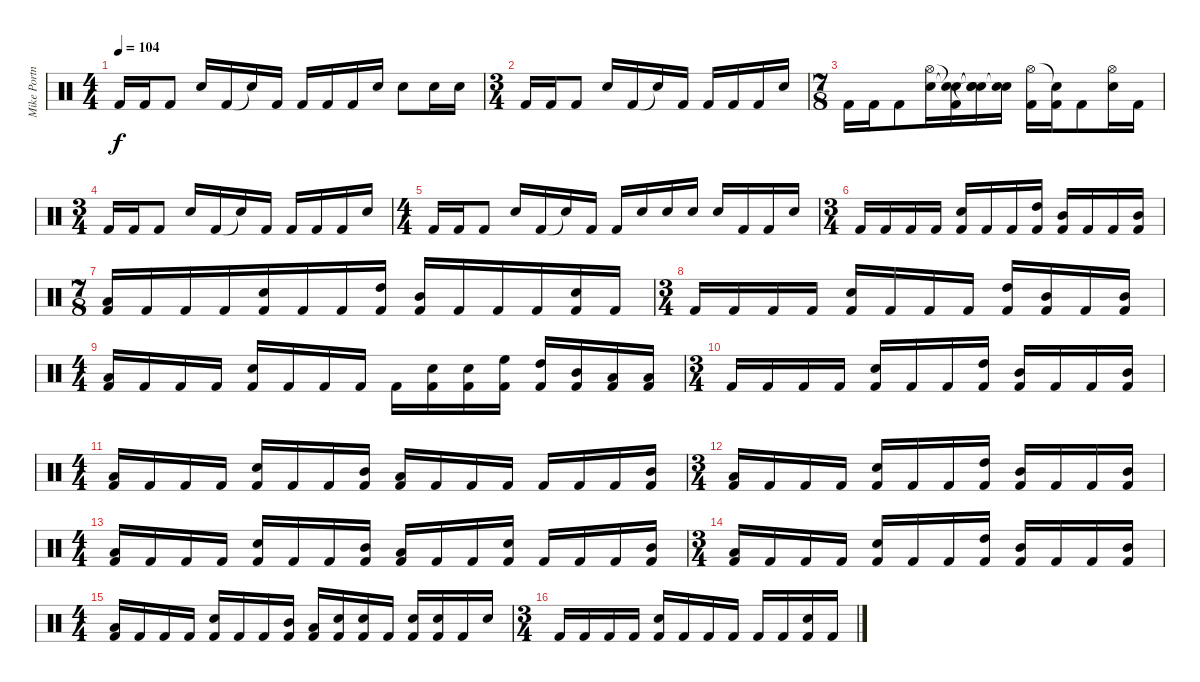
\track ("Mike Portnoy" "Mike Portn") {instrument percussion}
\staff {score}
\articulation defaults
\ts (4 4)
\tempo 104
\clef neutral
\ks c "Kick (hit) 2".16{dy f} "Kick (hit) 2".16 "Kick (hit) 2".8 "Snare (hit) 2".16 "Kick (hit) 2".16 "Snare (hit)"{t}.16 "Kick (hit) 2".16 "Kick (hit) 2".16 "Kick (hit) 2".16 "Kick (hit) 2".16 "Snare (hit) 2".16 "Snare (hit) 2".8 "Snare (hit) 2".16 "Snare (hit) 2".16
|
\ts (3 4)
"Kick (hit) 2".16 "Kick (hit) 2".16 "Kick (hit) 2".8 "Snare (hit) 2".16 "Kick (hit) 2".16 "Snare (hit)"{t}.16 "Kick (hit) 2".16 "Kick (hit) 2".16 "Kick (hit) 2".16 "Kick (hit) 2".16 "Snare (hit) 2".16 |
\ts (7 8)
"Kick (hit) 2".16 "Kick (hit) 2".16 "Kick (hit) 2".8 ("Hi-Hat (open)" "Snare (hit) 2").16 ("Snare (hit)"{t} "Snare (hit)"{t} "Kick (hit) 2").16 ("Snare (hit)"{t} "Snare (hit)"{t} "Snare (hit)"{t}).16 ("Snare (hit)"{t} "Snare (hit) 2").16 ("Hi-Hat (open)" "Kick (hit) 2").16 ("Snare (hit)"{t} "Kick (hit) 2").16 "Kick (hit) 2".8 ("Hi-Hat (open)" "Snare (hit) 2").16 "Kick (hit) 2".16 |
\ts (3 4)
"Kick (hit) 2".16 "Kick (hit) 2".16 "Kick (hit) 2".8 "Snare (hit) 2".16 "Kick (hit) 2".16 "Snare (hit)"{t}.16 "Kick (hit) 2".16 "Kick (hit) 2".16 "Kick (hit) 2".16 "Kick (hit) 2".16 "Snare (hit) 2".16 |
\ts (4 4)
"Kick (hit) 2".16 "Kick (hit) 2".16 "Kick (hit) 2".8 "Snare (hit) 2".16 "Kick (hit) 2".16 "Snare (hit)"{t}.16 "Kick (hit) 2".16 "Kick (hit) 2".16 "Snare (hit) 2".16 "Snare (hit) 2".16 "Snare (hit) 2".16 "Snare (hit) 2".16 "Kick (hit) 2".16 "Kick (hit) 2".16 "Snare (hit) 2".16 |
\ts (3 4)
"Kick (hit) 2".16 "Kick (hit) 2".16 "Kick (hit) 2".16 "Kick (hit) 2".16 ("Snare (hit) 2" "Kick (hit) 2").16 "Kick (hit) 2".16 "Kick (hit) 2".16 ("High Tom (hit)" "Kick (hit) 2").16 ("Mid Tom (hit)" "Kick (hit) 2").16 "Kick (hit) 2".16 "Kick (hit) 2".16 ("Mid Tom (hit)" "Kick (hit) 2").16 |
\ts (7 8)
("Low Tom (hit)" "Kick (hit) 2").16 "Kick (hit) 2".16 "Kick (hit) 2".16 "Kick (hit) 2".16 ("Snare (hit) 2" "Kick (hit) 2").16 "Kick (hit) 2".16 "Kick (hit) 2".16 ("High Tom (hit)" "Kick (hit) 2").16 ("Mid Tom (hit)" "Kick (hit) 2").16 "Kick (hit) 2".16 "Kick (hit) 2".16 "Kick (hit) 2".16 ("Snare (hit) 2" "Kick (hit) 2").16 "Kick (hit) 2".16 |
\ts (3 4)
"Kick (hit) 2".16 "Kick (hit) 2".16 "Kick (hit) 2".16 "Kick (hit) 2".16 ("Snare (hit) 2" "Kick (hit) 2").16 "Kick (hit) 2".16 "Kick (hit) 2".16 "Kick (hit) 2".16 ("High Tom (hit)" "Kick (hit) 2").16 ("Mid Tom (hit)" "Kick (hit) 2").16 "Kick (hit) 2".16 ("Mid Tom (hit)" "Kick (hit) 2").16 |
\ts (4 4)
("Low Tom (hit)" "Kick (hit) 2").16 "Kick (hit) 2".16 "Kick (hit) 2".16 "Kick (hit) 2".16 ("Snare (hit) 2" "Kick (hit) 2").16 "Kick (hit) 2".16 "Kick (hit) 2".16 "Kick (hit) 2".16 "Kick (hit) 2".16 ("Snare (hit) 2" "Kick (hit) 2").16 ("Snare (hit) 2" "Kick (hit) 2").16 ("High Floor Tom (hit)" "Kick (hit) 2").16 ("High Tom (hit)" "Kick (hit) 2").16 ("Mid Tom (hit)" "Kick (hit) 2").16 ("Low Tom (hit)" "Kick (hit) 2").16 ("Low Tom (hit)" "Kick (hit) 2").16 |
\ts (3 4)
"Kick (hit) 2".16 "Kick (hit) 2".16 "Kick (hit) 2".16 "Kick (hit) 2".16 ("Snare (hit) 2" "Kick (hit) 2").16 "Kick (hit) 2".16 "Kick (hit) 2".16 ("High Tom (hit)" "Kick (hit) 2").16 ("Mid Tom (hit)" "Kick (hit) 2").16 "Kick (hit) 2".16 "Kick (hit) 2".16 ("Mid Tom (hit)" "Kick (hit) 2").16 |
\ts (4 4)
("Low Tom (hit)" "Kick (hit) 2").16 "Kick (hit) 2".16 "Kick (hit) 2".16 "Kick (hit) 2".16 ("Snare (hit) 2" "Kick (hit) 2").16 "Kick (hit) 2".16 "Kick (hit) 2".16 ("Mid Tom (hit)" "Kick (hit) 2").16 ("Low Tom (hit)" "Kick (hit) 2").16 "Kick (hit) 2".16 "Kick (hit) 2".16 "Kick (hit) 2".16 "Kick (hit) 2".16 "Kick (hit) 2".16 "Kick (hit) 2".16 ("Mid Tom (hit)" "Kick (hit) 2").16 |
\ts (3 4)
("Low Tom (hit)" "Kick (hit) 2").16 "Kick (hit) 2".16 "Kick (hit) 2".16 "Kick (hit) 2".16 ("Snare (hit) 2" "Kick (hit) 2").16 "Kick (hit) 2".16 "Kick (hit) 2".16 ("High Tom (hit)" "Kick (hit) 2").16 ("Mid Tom (hit)" "Kick (hit) 2").16 "Kick (hit) 2".16 "Kick (hit) 2".16 ("Mid Tom (hit)" "Kick (hit) 2").16 |
\ts (4 4)
("Low Tom (hit)" "Kick (hit) 2").16 "Kick (hit) 2".16 "Kick (hit) 2".16 "Kick (hit) 2".16 ("Snare (hit) 2" "Kick (hit) 2").16 "Kick (hit) 2".16 "Kick (hit) 2".16 ("Mid Tom (hit)" "Kick (hit) 2").16 ("Low Tom (hit)" "Kick (hit) 2").16 "Kick (hit) 2".16 "Kick (hit) 2".16 ("Snare (hit) 2" "Kick (hit) 2").16 "Kick (hit) 2".16 "Kick (hit) 2".16 "Kick (hit) 2".16 ("Mid Tom (hit)" "Kick (hit) 2").16 |
\ts (3 4)
("Low Tom (hit)" "Kick (hit) 2").16 "Kick (hit) 2".16 "Kick (hit) 2".16 "Kick (hit) 2".16 ("Snare (hit) 2" "Kick (hit) 2").16 "Kick (hit) 2".16 "Kick (hit) 2".16 ("High Tom (hit)" "Kick (hit) 2").16 ("Mid Tom (hit)" "Kick (hit) 2").16 "Kick (hit) 2".16 "Kick (hit) 2".16 ("Mid Tom (hit)" "Kick (hit) 2").16 |
\ts (4 4)
("Low Tom (hit)" "Kick (hit) 2").16 "Kick (hit) 2".16 "Kick (hit) 2".16 "Kick (hit) 2".16 ("Snare (hit) 2" "Kick (hit) 2").16 "Kick (hit) 2".16 "Kick (hit) 2".16 ("Mid Tom (hit)" "Kick (hit) 2").16 ("Low Tom (hit)" "Kick (hit) 2").16 ("Snare (hit) 2" "Kick (hit) 2").16 ("Snare (hit) 2" "Kick (hit) 2").16 "Kick (hit) 2".16 ("Snare (hit) 2" "Kick (hit) 2").16 ("Snare (hit) 2" "Kick (hit) 2").16 "Kick (hit) 2".16 "Snare (hit) 2".16 |
\ts (3 4)
"Kick (hit) 2".16 "Kick (hit) 2".16 "Kick (hit) 2".16 "Kick (hit) 2".16 ("Snare (hit) 2" "Kick (hit) 2").16 "Kick (hit) 2".16 "Kick (hit) 2".16 "Kick (hit) 2".16 "Kick (hit) 2".16 "Kick (hit) 2".16 ("Snare (hit) 2" "Kick (hit) 2").16 "Kick (hit) 2".16
